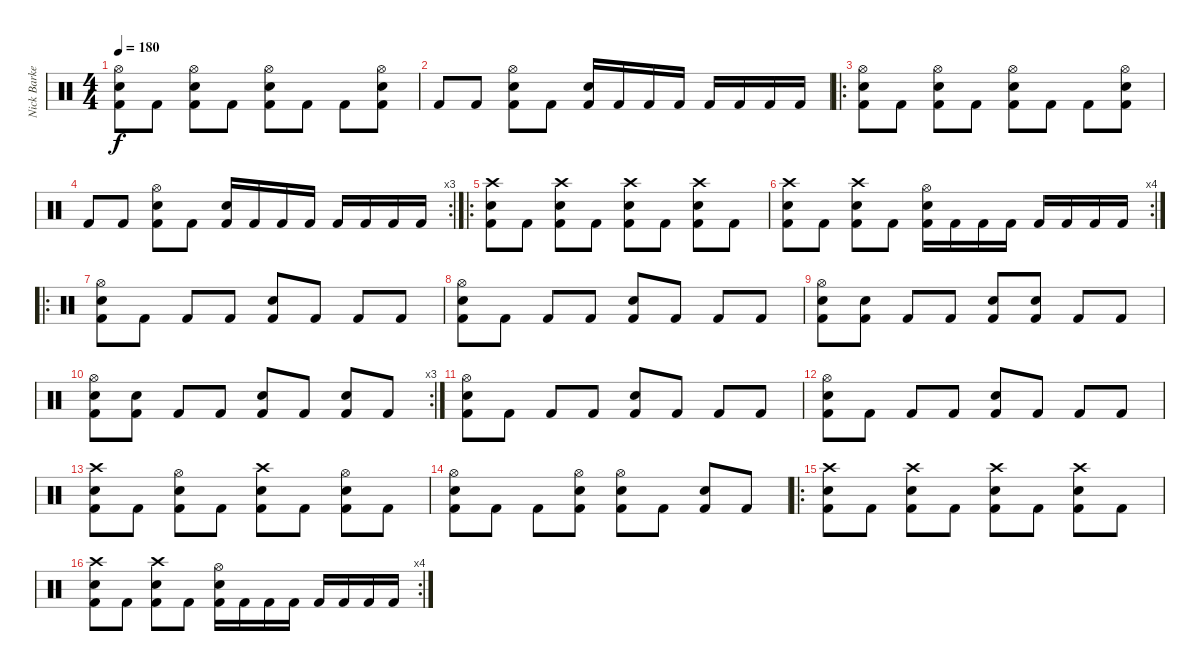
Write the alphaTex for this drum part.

\track ("Nick Barker" "Nick Barke") {instrument percussion}
\staff {score}
\articulation defaults
\ts (4 4)
\tempo 180
\clef neutral
\ks c
("Hi-Hat (open)" "Snare (hit) 2" "Kick (hit) 2").8{dy f} "Kick (hit) 2".8 ("Hi-Hat (open)" "Snare (hit) 2" "Kick (hit) 2").8 "Kick (hit) 2".8 ("Hi-Hat (open)" "Snare (hit) 2" "Kick (hit) 2").8 "Kick (hit) 2".8 "Kick (hit) 2".8 ("Hi-Hat (open)" "Snare (hit) 2" "Kick (hit) 2").8 |
"Kick (hit) 2".8 "Kick (hit) 2".8 ("Hi-Hat (open)" "Snare (hit) 2" "Kick (hit) 2").8 "Kick (hit) 2".8 ("Snare (hit) 2" "Kick (hit) 2").16 "Kick (hit) 2".16 "Kick (hit) 2".16 "Kick (hit) 2".16 "Kick (hit) 2".16 "Kick (hit) 2".16 "Kick (hit) 2".16 "Kick (hit) 2".16 |
\ro
("Hi-Hat (open)" "Snare (hit) 2" "Kick (hit) 2").8 "Kick (hit) 2".8 ("Hi-Hat (open)" "Snare (hit) 2" "Kick (hit) 2").8 "Kick (hit) 2".8 ("Hi-Hat (open)" "Snare (hit) 2" "Kick (hit) 2").8 "Kick (hit) 2".8 "Kick (hit) 2".8 ("Hi-Hat (open)" "Snare (hit) 2" "Kick (hit) 2").8 |
\rc 3 "Kick (hit) 2".8 "Kick (hit) 2".8
("Hi-Hat (open)" "Snare (hit) 2" "Kick (hit) 2").8 "Kick (hit) 2".8 ("Snare (hit) 2" "Kick (hit) 2").16 "Kick (hit) 2".16 "Kick (hit) 2".16 "Kick (hit) 2".16 "Kick (hit) 2".16 "Kick (hit) 2".16 "Kick (hit) 2".16 "Kick (hit) 2".16 |
\ro
("Crash high (hit)" "Snare (hit) 2" "Kick (hit) 2").8 "Kick (hit) 2".8 ("Crash high (hit)" "Snare (hit) 2" "Kick (hit) 2").8 "Kick (hit) 2".8 ("Crash high (hit)" "Snare (hit) 2" "Kick (hit) 2").8 "Kick (hit) 2".8 ("Crash high (hit)" "Snare (hit) 2" "Kick (hit) 2").8 "Kick (hit) 2".8 |
\rc 4
("Crash high (hit)" "Snare (hit) 2" "Kick (hit) 2").8 "Kick (hit) 2".8 ("Crash high (hit)" "Snare (hit) 2" "Kick (hit) 2").8 "Kick (hit) 2".8 ("Hi-Hat (open)" "Snare (hit) 2" "Kick (hit) 2").16 "Kick (hit) 2".16 "Kick (hit) 2".16 "Kick (hit) 2".16 "Kick (hit) 2".16 "Kick (hit) 2".16 "Kick (hit) 2".16 "Kick (hit) 2".16 |
\ro
("Hi-Hat (open)" "Snare (hit) 2" "Kick (hit) 2").8 "Kick (hit) 2".8 "Kick (hit) 2".8 "Kick (hit) 2".8 ("Snare (hit) 2" "Kick (hit) 2").8 "Kick (hit) 2".8 "Kick (hit) 2".8 "Kick (hit) 2".8 |
("Hi-Hat (open)" "Snare (hit) 2" "Kick (hit) 2").8 "Kick (hit) 2".8 "Kick (hit) 2".8 "Kick (hit) 2".8 ("Snare (hit) 2" "Kick (hit) 2").8 "Kick (hit) 2".8 "Kick (hit) 2".8 "Kick (hit) 2".8 |
("Hi-Hat (open)" "Snare (hit) 2" "Kick (hit) 2").8 ("Snare (hit) 2" "Kick (hit) 2").8 "Kick (hit) 2".8 "Kick (hit) 2".8 ("Snare (hit) 2" "Kick (hit) 2").8 ("Snare (hit) 2" "Kick (hit) 2").8 "Kick (hit) 2".8 "Kick (hit) 2".8 |
\rc 3
("Hi-Hat (open)" "Snare (hit) 2" "Kick (hit) 2").8 ("Snare (hit) 2" "Kick (hit) 2").8 "Kick (hit) 2".8 "Kick (hit) 2".8 ("Snare (hit) 2" "Kick (hit) 2").8 "Kick (hit) 2".8 ("Snare (hit) 2" "Kick (hit) 2").8 "Kick (hit) 2".8 |
("Hi-Hat (open)" "Snare (hit) 2" "Kick (hit) 2").8 "Kick (hit) 2".8 "Kick (hit) 2".8 "Kick (hit) 2".8 ("Snare (hit) 2" "Kick (hit) 2").8 "Kick (hit) 2".8 "Kick (hit) 2".8 "Kick (hit) 2".8 |
("Hi-Hat (open)" "Snare (hit) 2" "Kick (hit) 2").8 "Kick (hit) 2".8 "Kick (hit) 2".8 "Kick (hit) 2".8 ("Snare (hit) 2" "Kick (hit) 2").8 "Kick (hit) 2".8 "Kick (hit) 2".8 "Kick (hit) 2".8 |
("Crash high (hit)" "Snare (hit) 2" "Kick (hit) 2").8 "Kick (hit) 2".8 ("Hi-Hat (open)" "Snare (hit) 2" "Kick (hit) 2").8 "Kick (hit) 2".8 ("Crash high (hit)" "Snare (hit) 2" "Kick (hit) 2").8 "Kick (hit) 2".8 ("Hi-Hat (open)" "Snare (hit) 2" "Kick (hit) 2").8 "Kick (hit) 2".8 |
("Hi-Hat (open)" "Snare (hit) 2" "Kick (hit) 2").8 "Kick (hit) 2".8 "Kick (hit) 2".8 ("Hi-Hat (open)" "Snare (hit) 2" "Kick (hit) 2").8 ("Hi-Hat (open)" "Snare (hit) 2" "Kick (hit) 2").8 "Kick (hit) 2".8 ("Snare (hit) 2" "Kick (hit) 2").8 "Kick (hit) 2".8 |
\ro
("Crash high (hit)" "Snare (hit) 2" "Kick (hit) 2").8 "Kick (hit) 2".8 ("Crash high (hit)" "Snare (hit) 2" "Kick (hit) 2").8 "Kick (hit) 2".8 ("Crash high (hit)" "Snare (hit) 2" "Kick (hit) 2").8 "Kick (hit) 2".8 ("Crash high (hit)" "Snare (hit) 2" "Kick (hit) 2").8 "Kick (hit) 2".8 |
\rc 4
("Crash high (hit)" "Snare (hit) 2" "Kick (hit) 2").8 "Kick (hit) 2".8 ("Crash high (hit)" "Snare (hit) 2" "Kick (hit) 2").8 "Kick (hit) 2".8 ("Hi-Hat (open)" "Snare (hit) 2" "Kick (hit) 2").16 "Kick (hit) 2".16 "Kick (hit) 2".16 "Kick (hit) 2".16 "Kick (hit) 2".16 "Kick (hit) 2".16 "Kick (hit) 2".16 "Kick (hit) 2".16
